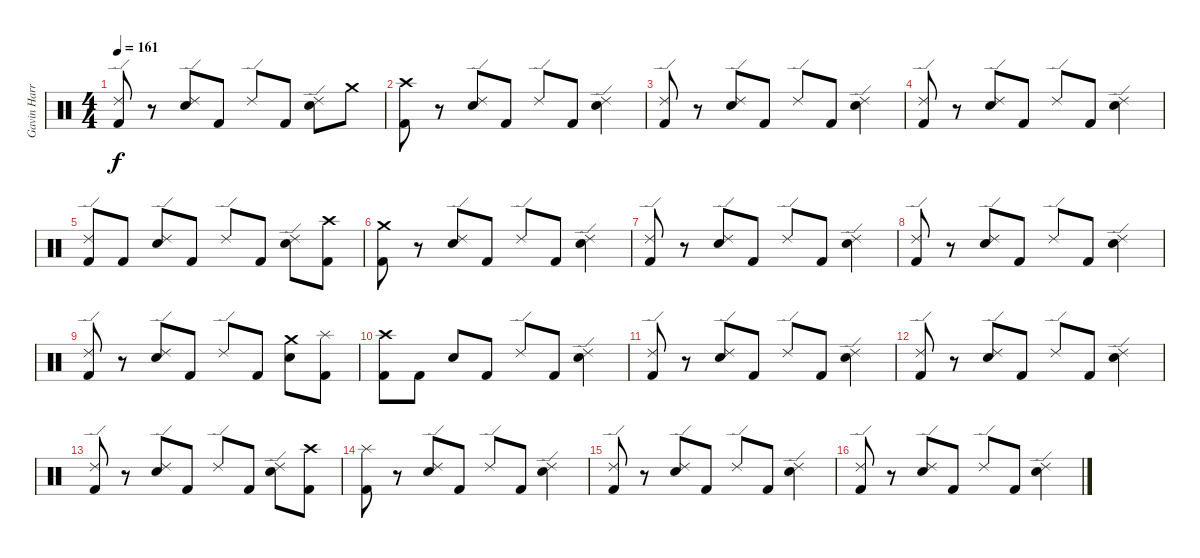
\track ("Gavin Harrison (Drums)" "Gavin Harr") {instrument percussion}
\staff {score}
\articulation defaults
\ts (4 4)
\tempo 161
\clef neutral
\ks c
("Ride (edge) 2" "Kick (hit) 2").8{dy f} r.8 ("Ride (edge) 2" "Electric Snare (hit)").8 "Kick (hit) 2".8 "Ride (edge) 2".8 "Kick (hit) 2".8 ("Ride (edge) 2" "Electric Snare (hit)").8 "Crash medium (hit)".8 |
("Crash high (hit)" "Kick (hit) 2").8 r.8 ("Ride (edge) 2" "Electric Snare (hit)").8 "Kick (hit) 2".8 "Ride (edge) 2".8 "Kick (hit) 2".8 ("Ride (edge) 2" "Electric Snare (hit)").4 |
("Ride (edge) 2" "Kick (hit) 2").8 r.8 ("Ride (edge) 2" "Electric Snare (hit)").8 "Kick (hit) 2".8 "Ride (edge) 2".8 "Kick (hit) 2".8 ("Ride (edge) 2" "Electric Snare (hit)").4 |
("Ride (edge) 2" "Kick (hit) 2").8 r.8 ("Ride (edge) 2" "Electric Snare (hit)").8 "Kick (hit) 2".8 "Ride (edge) 2".8 "Kick (hit) 2".8 ("Ride (edge) 2" "Electric Snare (hit)").4 |
("Ride (edge) 2" "Kick (hit) 2").8 "Kick (hit) 2".8 ("Ride (edge) 2" "Electric Snare (hit)").8 "Kick (hit) 2".8 "Ride (edge) 2".8 "Kick (hit) 2".8 ("Ride (edge) 2" "Electric Snare (hit)").8 ("Crash high (hit)" "Kick (hit) 2").8 |
("Crash medium (hit)" "Kick (hit) 2").8 r.8 ("Ride (edge) 2" "Electric Snare (hit)").8 "Kick (hit) 2".8 "Ride (edge) 2".8 "Kick (hit) 2".8 ("Ride (edge) 2" "Electric Snare (hit)").4 |
("Ride (edge) 2" "Kick (hit) 2").8 r.8 ("Ride (edge) 2" "Electric Snare (hit)").8 "Kick (hit) 2".8 "Ride (edge) 2".8 "Kick (hit) 2".8 ("Ride (edge) 2" "Electric Snare (hit)").4 |
("Ride (edge) 2" "Kick (hit) 2").8 r.8 ("Ride (edge) 2" "Electric Snare (hit)").8 "Kick (hit) 2".8 "Ride (edge) 2".8 "Kick (hit) 2".8 ("Ride (edge) 2" "Electric Snare (hit)").4 |
("Ride (edge) 2" "Kick (hit) 2").8 r.8 ("Ride (edge) 2" "Electric Snare (hit)").8 "Kick (hit) 2".8 "Ride (edge) 2".8 "Kick (hit) 2".8 ("Crash medium (hit)" "Electric Snare (hit)").8 ("Splash (hit)" "Kick (hit) 2").8 |
("Crash high (hit)" "Kick (hit) 2").8 "Kick (hit) 2".8 "Electric Snare (hit)".8 "Kick (hit) 2".8 "Ride (edge) 2".8 "Kick (hit) 2".8 ("Ride (edge) 2" "Electric Snare (hit)").4 |
("Ride (edge) 2" "Kick (hit) 2").8 r.8 ("Ride (edge) 2" "Electric Snare (hit)").8 "Kick (hit) 2".8 "Ride (edge) 2".8 "Kick (hit) 2".8 ("Ride (edge) 2" "Electric Snare (hit)").4 |
("Ride (edge) 2" "Kick (hit) 2").8 r.8 ("Ride (edge) 2" "Electric Snare (hit)").8 "Kick (hit) 2".8 "Ride (edge) 2".8 "Kick (hit) 2".8 ("Ride (edge) 2" "Electric Snare (hit)").4 |
("Ride (edge) 2" "Kick (hit) 2").8 r.8 ("Ride (edge) 2" "Electric Snare (hit)").8 "Kick (hit) 2".8 "Ride (edge) 2".8 "Kick (hit) 2".8 ("Ride (edge) 2" "Electric Snare (hit)").8 ("Crash high (hit)" "Kick (hit) 2").8 |
("Splash (hit)" "Kick (hit) 2").8 r.8 ("Ride (edge) 2" "Electric Snare (hit)").8 "Kick (hit) 2".8 "Ride (edge) 2".8 "Kick (hit) 2".8 ("Ride (edge) 2" "Electric Snare (hit)").4 |
("Ride (edge) 2" "Kick (hit) 2").8 r.8 ("Ride (edge) 2" "Electric Snare (hit)").8 "Kick (hit) 2".8 "Ride (edge) 2".8 "Kick (hit) 2".8 ("Ride (edge) 2" "Electric Snare (hit)").4 |
("Ride (edge) 2" "Kick (hit) 2").8 r.8 ("Ride (edge) 2" "Electric Snare (hit)").8 "Kick (hit) 2".8 "Ride (edge) 2".8 "Kick (hit) 2".8 ("Ride (edge) 2" "Electric Snare (hit)").4
